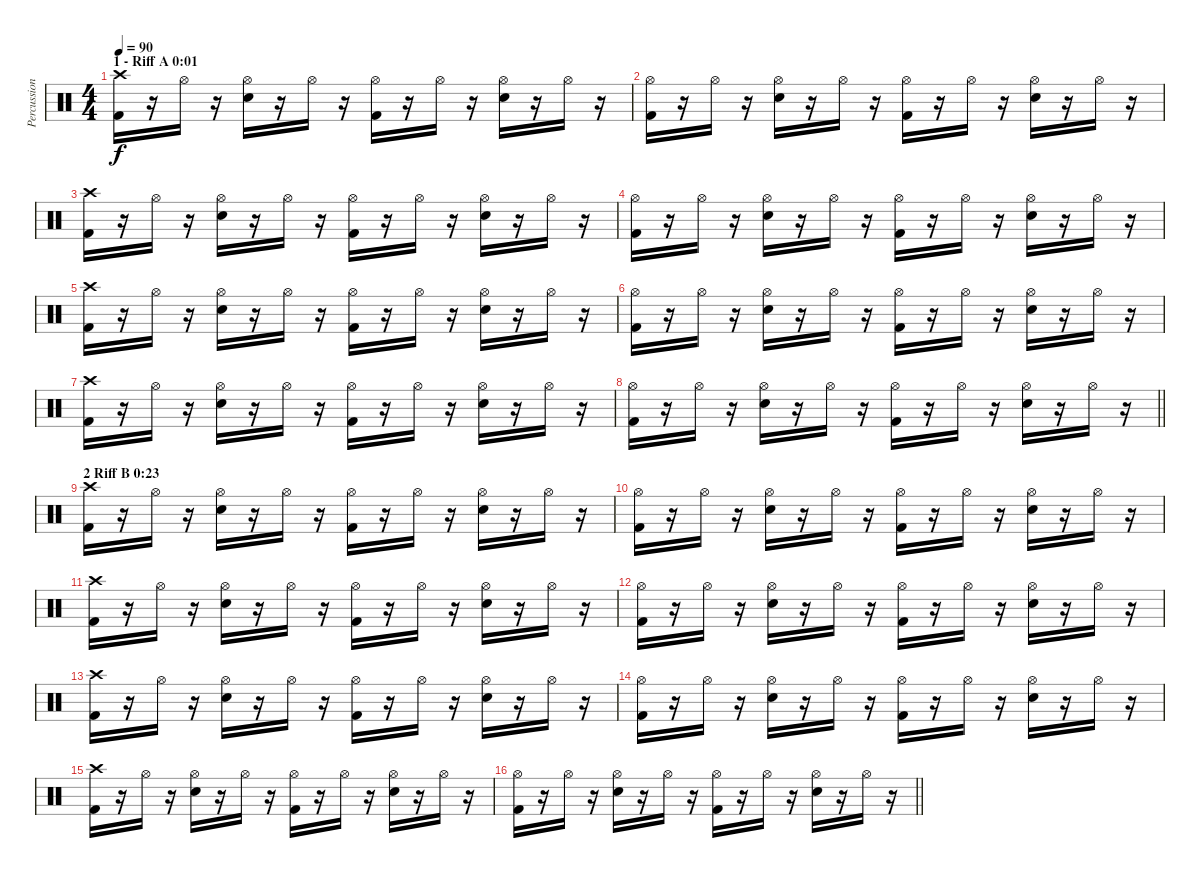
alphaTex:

\track ("Percussion" "Percussion") {instrument percussion}
\staff {score}
\articulation defaults
\ts (4 4)
\section ("" "1 - Riff A 0:01")
\tempo 90
\clef neutral
\ks c
("Crash high (hit)" "Kick (hit) 2").16{dy f} r.16 "Hi-Hat (open)".16 r.16 ("Hi-Hat (open)" "Snare (hit) 2").16 r.16 "Hi-Hat (open)".16 r.16 ("Hi-Hat (open)" "Kick (hit) 2").16 r.16 "Hi-Hat (open)".16 r.16 ("Hi-Hat (open)" "Snare (hit) 2").16 r.16 "Hi-Hat (open)".16 r.16 |
("Hi-Hat (open)" "Kick (hit) 2").16 r.16 "Hi-Hat (open)".16 r.16 ("Hi-Hat (open)" "Snare (hit) 2").16 r.16 "Hi-Hat (open)".16 r.16 ("Hi-Hat (open)" "Kick (hit) 2").16 r.16 "Hi-Hat (open)".16 r.16 ("Hi-Hat (open)" "Snare (hit) 2").16 r.16 "Hi-Hat (open)".16 r.16 |
("Crash high (hit)" "Kick (hit) 2").16 r.16 "Hi-Hat (open)".16 r.16 ("Hi-Hat (open)" "Snare (hit) 2").16 r.16 "Hi-Hat (open)".16 r.16 ("Hi-Hat (open)" "Kick (hit) 2").16 r.16 "Hi-Hat (open)".16 r.16 ("Hi-Hat (open)" "Snare (hit) 2").16 r.16 "Hi-Hat (open)".16 r.16 |
("Hi-Hat (open)" "Kick (hit) 2").16 r.16 "Hi-Hat (open)".16 r.16 ("Hi-Hat (open)" "Snare (hit) 2").16 r.16 "Hi-Hat (open)".16 r.16 ("Hi-Hat (open)" "Kick (hit) 2").16 r.16 "Hi-Hat (open)".16 r.16 ("Hi-Hat (open)" "Snare (hit) 2").16 r.16 "Hi-Hat (open)".16 r.16 |
("Crash high (hit)" "Kick (hit) 2").16 r.16 "Hi-Hat (open)".16 r.16 ("Hi-Hat (open)" "Snare (hit) 2").16 r.16 "Hi-Hat (open)".16 r.16 ("Hi-Hat (open)" "Kick (hit) 2").16 r.16 "Hi-Hat (open)".16 r.16 ("Hi-Hat (open)" "Snare (hit) 2").16 r.16 "Hi-Hat (open)".16 r.16 |
("Hi-Hat (open)" "Kick (hit) 2").16 r.16 "Hi-Hat (open)".16 r.16 ("Hi-Hat (open)" "Snare (hit) 2").16 r.16 "Hi-Hat (open)".16 r.16 ("Hi-Hat (open)" "Kick (hit) 2").16 r.16 "Hi-Hat (open)".16 r.16 ("Hi-Hat (open)" "Snare (hit) 2").16 r.16 "Hi-Hat (open)".16 r.16 |
("Crash high (hit)" "Kick (hit) 2").16 r.16 "Hi-Hat (open)".16 r.16 ("Hi-Hat (open)" "Snare (hit) 2").16 r.16 "Hi-Hat (open)".16 r.16 ("Hi-Hat (open)" "Kick (hit) 2").16 r.16 "Hi-Hat (open)".16 r.16 ("Hi-Hat (open)" "Snare (hit) 2").16 r.16 "Hi-Hat (open)".16 r.16 |
\barLineRight lightlight
("Hi-Hat (open)" "Kick (hit) 2").16 r.16 "Hi-Hat (open)".16 r.16 ("Hi-Hat (open)" "Snare (hit) 2").16 r.16 "Hi-Hat (open)".16 r.16 ("Hi-Hat (open)" "Kick (hit) 2").16 r.16 "Hi-Hat (open)".16 r.16 ("Hi-Hat (open)" "Snare (hit) 2").16 r.16 "Hi-Hat (open)".16 r.16 |
\section ("" "2 Riff B 0:23")
("Crash high (hit)" "Kick (hit) 2").16 r.16 "Hi-Hat (open)".16 r.16 ("Hi-Hat (open)" "Snare (hit) 2").16 r.16 "Hi-Hat (open)".16 r.16 ("Hi-Hat (open)" "Kick (hit) 2").16 r.16 "Hi-Hat (open)".16 r.16 ("Hi-Hat (open)" "Snare (hit) 2").16 r.16 "Hi-Hat (open)".16 r.16 |
("Hi-Hat (open)" "Kick (hit) 2").16 r.16 "Hi-Hat (open)".16 r.16 ("Hi-Hat (open)" "Snare (hit) 2").16 r.16 "Hi-Hat (open)".16 r.16 ("Hi-Hat (open)" "Kick (hit) 2").16 r.16 "Hi-Hat (open)".16 r.16 ("Hi-Hat (open)" "Snare (hit) 2").16 r.16 "Hi-Hat (open)".16 r.16 |
("Crash high (hit)" "Kick (hit) 2").16 r.16 "Hi-Hat (open)".16 r.16 ("Hi-Hat (open)" "Snare (hit) 2").16 r.16 "Hi-Hat (open)".16 r.16 ("Hi-Hat (open)" "Kick (hit) 2").16 r.16 "Hi-Hat (open)".16 r.16 ("Hi-Hat (open)" "Snare (hit) 2").16 r.16 "Hi-Hat (open)".16 r.16 |
("Hi-Hat (open)" "Kick (hit) 2").16 r.16 "Hi-Hat (open)".16 r.16 ("Hi-Hat (open)" "Snare (hit) 2").16 r.16 "Hi-Hat (open)".16 r.16 ("Hi-Hat (open)" "Kick (hit) 2").16 r.16 "Hi-Hat (open)".16 r.16 ("Hi-Hat (open)" "Snare (hit) 2").16 r.16 "Hi-Hat (open)".16 r.16 |
("Crash high (hit)" "Kick (hit) 2").16 r.16 "Hi-Hat (open)".16 r.16 ("Hi-Hat (open)" "Snare (hit) 2").16 r.16 "Hi-Hat (open)".16 r.16 ("Hi-Hat (open)" "Kick (hit) 2").16 r.16 "Hi-Hat (open)".16 r.16 ("Hi-Hat (open)" "Snare (hit) 2").16 r.16 "Hi-Hat (open)".16 r.16 |
("Hi-Hat (open)" "Kick (hit) 2").16 r.16 "Hi-Hat (open)".16 r.16 ("Hi-Hat (open)" "Snare (hit) 2").16 r.16 "Hi-Hat (open)".16 r.16 ("Hi-Hat (open)" "Kick (hit) 2").16 r.16 "Hi-Hat (open)".16 r.16 ("Hi-Hat (open)" "Snare (hit) 2").16 r.16 "Hi-Hat (open)".16 r.16 |
("Crash high (hit)" "Kick (hit) 2").16 r.16 "Hi-Hat (open)".16 r.16 ("Hi-Hat (open)" "Snare (hit) 2").16 r.16 "Hi-Hat (open)".16 r.16 ("Hi-Hat (open)" "Kick (hit) 2").16 r.16 "Hi-Hat (open)".16 r.16 ("Hi-Hat (open)" "Snare (hit) 2").16 r.16 "Hi-Hat (open)".16 r.16 |
\barLineRight lightlight
("Hi-Hat (open)" "Kick (hit) 2").16 r.16 "Hi-Hat (open)".16 r.16 ("Hi-Hat (open)" "Snare (hit) 2").16 r.16 "Hi-Hat (open)".16 r.16 ("Hi-Hat (open)" "Kick (hit) 2").16 r.16 "Hi-Hat (open)".16 r.16 ("Hi-Hat (open)" "Snare (hit) 2").16 r.16 "Hi-Hat (open)".16 r.16
